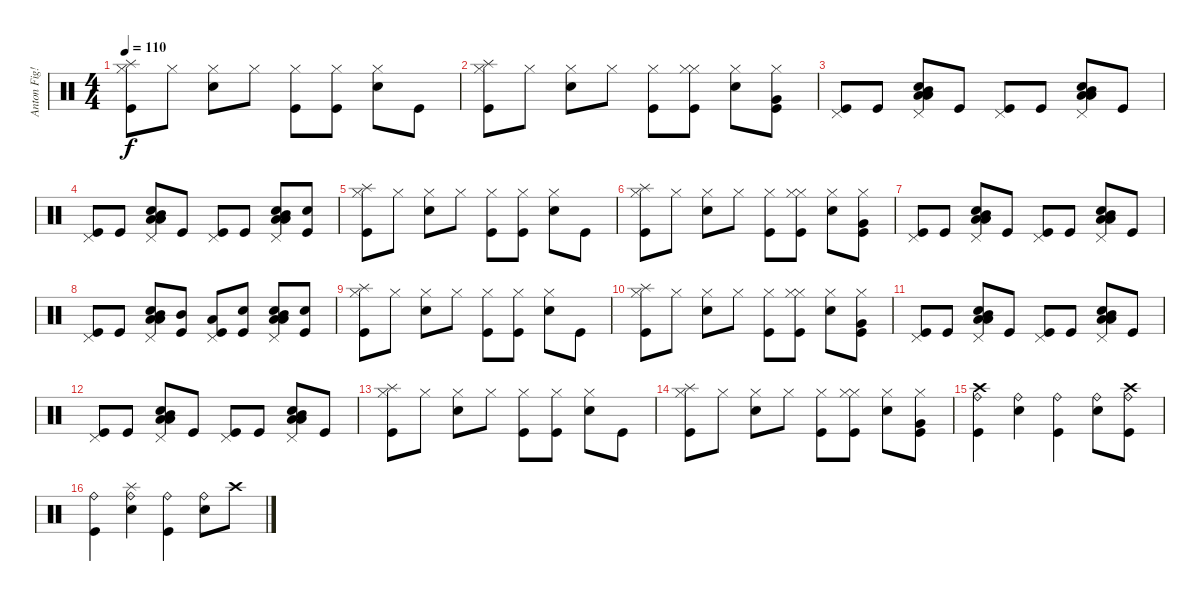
\track ("Anton Fig!?!" "Anton Fig!") {instrument percussion}
\staff {score}
\articulation defaults
\ts (4 4)
\tempo 110
\clef neutral
\ks c
("Hi-Hat (closed)" "Splash (hit)" "Kick (hit)").8{dy f} "Hi-Hat (closed)".8 ("Hi-Hat (closed)" "Electric Snare (hit)").8 "Hi-Hat (closed)".8 ("Hi-Hat (closed)" "Kick (hit)").8 ("Hi-Hat (closed)" "Kick (hit)").8 ("Hi-Hat (closed)" "Electric Snare (hit)").8 "Kick (hit)".8 |
("Hi-Hat (closed)" "Splash (hit)" "Kick (hit)").8 "Hi-Hat (closed)".8 ("Hi-Hat (closed)" "Electric Snare (hit)").8 "Hi-Hat (closed)".8 ("Hi-Hat (closed)" "Kick (hit)").8 ("Hi-Hat (closed)" "Hi-Hat (closed)" "Kick (hit)").8 ("Hi-Hat (closed)" "Electric Snare (hit)").8 ("Hi-Hat (closed)" "Very Low Tom (hit)" "Kick (hit)").8 |
("Kick (hit)" "Pedal Hi-Hat (hit)").8 "Kick (hit)".8 ("Low Tom (hit)" "Mid Tom (hit)" "Low Floor Tom (hit)" "Electric Snare (hit)" "Pedal Hi-Hat (hit)").8 "Kick (hit)".8 ("Kick (hit)" "Pedal Hi-Hat (hit)").8 "Kick (hit)".8 ("Low Tom (hit)" "Mid Tom (hit)" "Low Floor Tom (hit)" "Electric Snare (hit)" "Pedal Hi-Hat (hit)").8 "Kick (hit)".8 |
("Kick (hit)" "Pedal Hi-Hat (hit)").8 "Kick (hit)".8 ("Low Tom (hit)" "Mid Tom (hit)" "Low Floor Tom (hit)" "Electric Snare (hit)" "Pedal Hi-Hat (hit)").8 "Kick (hit)".8 ("Kick (hit)" "Pedal Hi-Hat (hit)").8 "Kick (hit)".8 ("Low Tom (hit)" "Mid Tom (hit)" "Low Floor Tom (hit)" "Electric Snare (hit)" "Pedal Hi-Hat (hit)").8 ("Kick (hit)" "Electric Snare (hit)").8 |
("Hi-Hat (closed)" "Splash (hit)" "Kick (hit)").8 "Hi-Hat (closed)".8 ("Hi-Hat (closed)" "Electric Snare (hit)").8 "Hi-Hat (closed)".8 ("Hi-Hat (closed)" "Kick (hit)").8 ("Hi-Hat (closed)" "Kick (hit)").8 ("Hi-Hat (closed)" "Electric Snare (hit)").8 "Kick (hit)".8 |
("Hi-Hat (closed)" "Splash (hit)" "Kick (hit)").8 "Hi-Hat (closed)".8 ("Hi-Hat (closed)" "Electric Snare (hit)").8 "Hi-Hat (closed)".8 ("Hi-Hat (closed)" "Kick (hit)").8 ("Hi-Hat (closed)" "Hi-Hat (closed)" "Kick (hit)").8 ("Hi-Hat (closed)" "Electric Snare (hit)").8 ("Hi-Hat (closed)" "Very Low Tom (hit)" "Kick (hit)").8 |
("Kick (hit)" "Pedal Hi-Hat (hit)").8 "Kick (hit)".8 ("Low Tom (hit)" "Mid Tom (hit)" "Low Floor Tom (hit)" "Electric Snare (hit)" "Pedal Hi-Hat (hit)").8 "Kick (hit)".8 ("Kick (hit)" "Pedal Hi-Hat (hit)").8 "Kick (hit)".8 ("Low Tom (hit)" "Mid Tom (hit)" "Low Floor Tom (hit)" "Electric Snare (hit)" "Pedal Hi-Hat (hit)").8 "Kick (hit)".8 |
("Kick (hit)" "Pedal Hi-Hat (hit)").8 "Kick (hit)".8 ("Low Tom (hit)" "Mid Tom (hit)" "Low Floor Tom (hit)" "Electric Snare (hit)" "Pedal Hi-Hat (hit)").8 ("Mid Tom (hit)" "Kick (hit)").8 ("Low Floor Tom (hit)" "Kick (hit)" "Pedal Hi-Hat (hit)").8 ("Electric Snare (hit)" "Kick (hit)").8 ("Low Tom (hit)" "Mid Tom (hit)" "Low Floor Tom (hit)" "Electric Snare (hit)" "Pedal Hi-Hat (hit)").8 ("Electric Snare (hit)" "Kick (hit)").8 |
("Hi-Hat (closed)" "Splash (hit)" "Kick (hit)").8 "Hi-Hat (closed)".8 ("Hi-Hat (closed)" "Electric Snare (hit)").8 "Hi-Hat (closed)".8 ("Hi-Hat (closed)" "Kick (hit)").8 ("Hi-Hat (closed)" "Kick (hit)").8 ("Hi-Hat (closed)" "Electric Snare (hit)").8 "Kick (hit)".8 |
("Hi-Hat (closed)" "Splash (hit)" "Kick (hit)").8 "Hi-Hat (closed)".8 ("Hi-Hat (closed)" "Electric Snare (hit)").8 "Hi-Hat (closed)".8 ("Hi-Hat (closed)" "Kick (hit)").8 ("Hi-Hat (closed)" "Hi-Hat (closed)" "Kick (hit)").8 ("Hi-Hat (closed)" "Electric Snare (hit)").8 ("Hi-Hat (closed)" "Very Low Tom (hit)" "Kick (hit)").8 |
("Kick (hit)" "Pedal Hi-Hat (hit)").8 "Kick (hit)".8 ("Low Tom (hit)" "Mid Tom (hit)" "Low Floor Tom (hit)" "Electric Snare (hit)" "Pedal Hi-Hat (hit)").8 "Kick (hit)".8 ("Kick (hit)" "Pedal Hi-Hat (hit)").8 "Kick (hit)".8 ("Low Tom (hit)" "Mid Tom (hit)" "Low Floor Tom (hit)" "Electric Snare (hit)" "Pedal Hi-Hat (hit)").8 "Kick (hit)".8 |
("Kick (hit)" "Pedal Hi-Hat (hit)").8 "Kick (hit)".8 ("Low Tom (hit)" "Mid Tom (hit)" "Low Floor Tom (hit)" "Electric Snare (hit)" "Pedal Hi-Hat (hit)").8 "Kick (hit)".8 ("Kick (hit)" "Pedal Hi-Hat (hit)").8 "Kick (hit)".8 ("Low Tom (hit)" "Mid Tom (hit)" "Low Floor Tom (hit)" "Electric Snare (hit)" "Pedal Hi-Hat (hit)").8 "Kick (hit)".8 |
("Hi-Hat (closed)" "Splash (hit)" "Kick (hit)").8 "Hi-Hat (closed)".8 ("Hi-Hat (closed)" "Electric Snare (hit)").8 "Hi-Hat (closed)".8 ("Hi-Hat (closed)" "Kick (hit)").8 ("Hi-Hat (closed)" "Kick (hit)").8 ("Hi-Hat (closed)" "Electric Snare (hit)").8 "Kick (hit)".8 |
("Hi-Hat (closed)" "Splash (hit)" "Kick (hit)").8 "Hi-Hat (closed)".8 ("Hi-Hat (closed)" "Electric Snare (hit)").8 "Hi-Hat (closed)".8 ("Hi-Hat (closed)" "Kick (hit)").8 ("Hi-Hat (closed)" "Hi-Hat (closed)" "Kick (hit)").8 ("Hi-Hat (closed)" "Electric Snare (hit)").8 ("Hi-Hat (closed)" "Very Low Tom (hit)" "Kick (hit)").8 |
("Ride (bell)" "Crash high (hit)" "Kick (hit)").4 ("Ride (bell)" "Electric Snare (hit)").4 ("Ride (bell)" "Kick (hit)").4 ("Ride (bell)" "Electric Snare (hit)").8 ("Ride (bell)" "Crash high (hit)" "Kick (hit)").8 |
("Ride (bell)" "Kick (hit)").4 ("Ride (bell)" "Splash (hit)" "Electric Snare (hit)").4 ("Ride (bell)" "Kick (hit)").4 ("Ride (bell)" "Electric Snare (hit)").8 "Crash high (hit)".8
